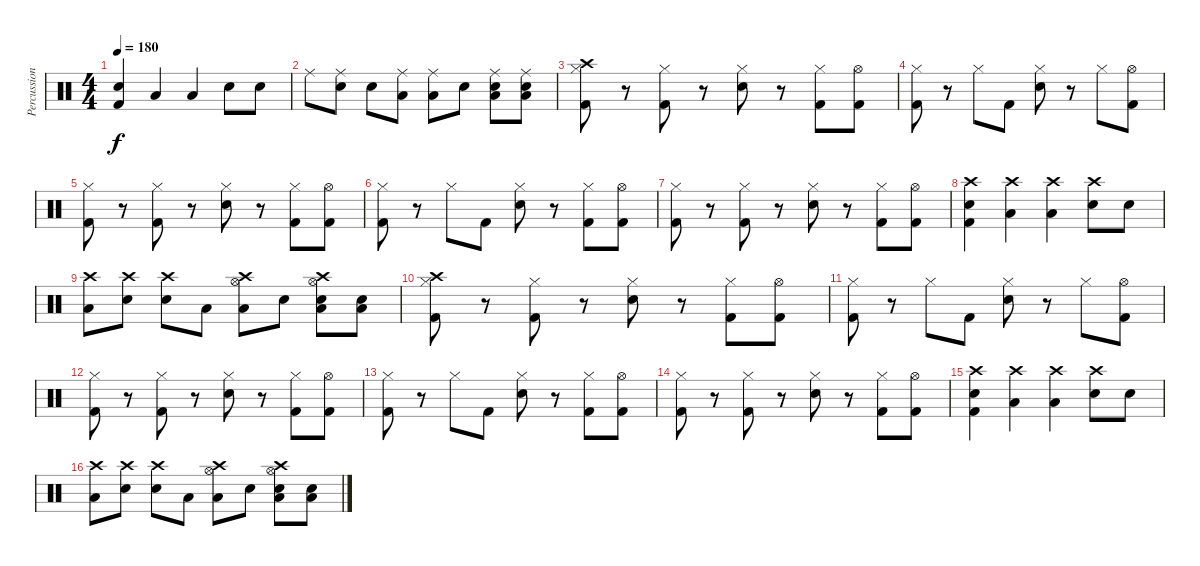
\track ("Percussions" "Percussion") {instrument percussion}
\staff {score}
\articulation defaults
\ts (4 4)
\tempo 180
\clef neutral
\ks c
("Kick (hit) 2" "Snare (hit) 2").4{dy f} "Low Floor Tom (hit)".4 "Low Floor Tom (hit)".4 "Snare (hit) 2".8 "Snare (hit) 2".8 |
"Ride (middle)".8 ("Snare (hit) 2" "Ride (middle)").8 "Snare (hit) 2".8 ("Low Floor Tom (hit)" "Ride (middle)").8 ("Low Floor Tom (hit)" "Ride (middle)").8 "Snare (hit) 2".8 ("Snare (hit) 2" "Low Floor Tom (hit)" "Ride (middle)").8 ("Snare (hit) 2" "Low Floor Tom (hit)" "Ride (middle)").8 |
("Hi-Hat (closed)" "Kick (hit) 2" "Crash high (hit)").8 r.8 ("Hi-Hat (closed)" "Kick (hit) 2").8 r.8 ("Hi-Hat (closed)" "Snare (hit) 2").8 r.8 ("Hi-Hat (closed)" "Kick (hit) 2").8 ("Hi-Hat (open)" "Kick (hit) 2").8 |
("Hi-Hat (closed)" "Kick (hit) 2").8 r.8 "Hi-Hat (closed)".8 "Kick (hit) 2".8 ("Hi-Hat (closed)" "Snare (hit) 2").8 r.8 "Hi-Hat (closed)".8 ("Hi-Hat (open)" "Kick (hit) 2").8 |
("Hi-Hat (closed)" "Kick (hit) 2").8 r.8 ("Hi-Hat (closed)" "Kick (hit) 2").8 r.8 ("Hi-Hat (closed)" "Snare (hit) 2").8 r.8 ("Hi-Hat (closed)" "Kick (hit) 2").8 ("Hi-Hat (open)" "Kick (hit) 2").8 |
("Hi-Hat (closed)" "Kick (hit) 2").8 r.8 "Hi-Hat (closed)".8 "Kick (hit) 2".8 ("Hi-Hat (closed)" "Snare (hit) 2").8 r.8 ("Hi-Hat (closed)" "Kick (hit) 2").8 ("Hi-Hat (open)" "Kick (hit) 2").8 |
("Hi-Hat (closed)" "Kick (hit) 2").8 r.8 ("Hi-Hat (closed)" "Kick (hit) 2").8 r.8 ("Hi-Hat (closed)" "Snare (hit) 2").8 r.8 ("Hi-Hat (closed)" "Kick (hit) 2").8 ("Hi-Hat (open)" "Kick (hit) 2").8 |
("Kick (hit) 2" "Snare (hit) 2" "Crash high (hit)").4 ("Low Floor Tom (hit)" "Crash high (hit)").4 ("Low Floor Tom (hit)" "Crash high (hit)").4 ("Snare (hit) 2" "Crash high (hit)").8 "Snare (hit) 2".8 |
("Low Floor Tom (hit)" "Crash high (hit)").8 ("Snare (hit) 2" "Crash high (hit)").8 ("Snare (hit) 2" "Crash high (hit)").8 "Low Floor Tom (hit)".8 ("Low Floor Tom (hit)" "Crash high (hit)" "Hi-Hat (open)").8 "Snare (hit) 2".8 ("Snare (hit) 2" "Low Floor Tom (hit)" "Hi-Hat (open)" "Crash high (hit)").8 ("Snare (hit) 2" "Low Floor Tom (hit)").8 |
("Hi-Hat (closed)" "Kick (hit) 2" "Crash high (hit)").8 r.8 ("Hi-Hat (closed)" "Kick (hit) 2").8 r.8 ("Hi-Hat (closed)" "Snare (hit) 2").8 r.8 ("Hi-Hat (closed)" "Kick (hit) 2").8 ("Hi-Hat (open)" "Kick (hit) 2").8 |
("Hi-Hat (closed)" "Kick (hit) 2").8 r.8 "Hi-Hat (closed)".8 "Kick (hit) 2".8 ("Hi-Hat (closed)" "Snare (hit) 2").8 r.8 "Hi-Hat (closed)".8 ("Hi-Hat (open)" "Kick (hit) 2").8 |
("Hi-Hat (closed)" "Kick (hit) 2").8 r.8 ("Hi-Hat (closed)" "Kick (hit) 2").8 r.8 ("Hi-Hat (closed)" "Snare (hit) 2").8 r.8 ("Hi-Hat (closed)" "Kick (hit) 2").8 ("Hi-Hat (open)" "Kick (hit) 2").8 |
("Hi-Hat (closed)" "Kick (hit) 2").8 r.8 "Hi-Hat (closed)".8 "Kick (hit) 2".8 ("Hi-Hat (closed)" "Snare (hit) 2").8 r.8 ("Hi-Hat (closed)" "Kick (hit) 2").8 ("Hi-Hat (open)" "Kick (hit) 2").8 |
("Hi-Hat (closed)" "Kick (hit) 2").8 r.8 ("Hi-Hat (closed)" "Kick (hit) 2").8 r.8 ("Hi-Hat (closed)" "Snare (hit) 2").8 r.8 ("Hi-Hat (closed)" "Kick (hit) 2").8 ("Hi-Hat (open)" "Kick (hit) 2").8 |
("Kick (hit) 2" "Snare (hit) 2" "Crash high (hit)").4 ("Low Floor Tom (hit)" "Crash high (hit)").4 ("Low Floor Tom (hit)" "Crash high (hit)").4 ("Snare (hit) 2" "Crash high (hit)").8 "Snare (hit) 2".8 |
("Low Floor Tom (hit)" "Crash high (hit)").8 ("Snare (hit) 2" "Crash high (hit)").8 ("Snare (hit) 2" "Crash high (hit)").8 "Low Floor Tom (hit)".8 ("Low Floor Tom (hit)" "Crash high (hit)" "Hi-Hat (open)").8 "Snare (hit) 2".8 ("Snare (hit) 2" "Low Floor Tom (hit)" "Hi-Hat (open)" "Crash high (hit)").8 ("Snare (hit) 2" "Low Floor Tom (hit)").8
